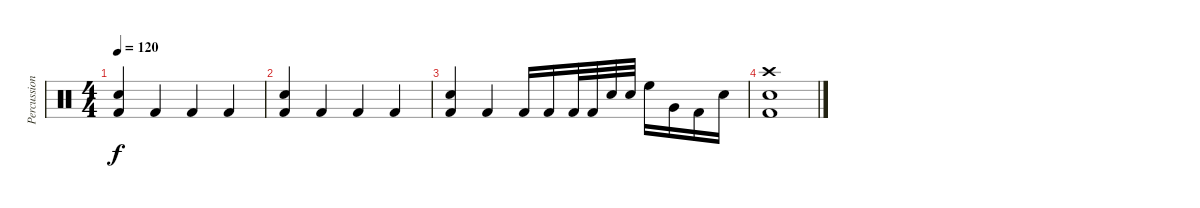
\track ("Percussions" "Percussion") {instrument percussion}
\staff {score}
\articulation defaults
\ts (4 4)
\tempo 120
\clef neutral
\ks c
("Snare (hit) 2" "Kick (hit) 2").4{dy f} "Kick (hit) 2".4 "Kick (hit) 2".4 "Kick (hit) 2".4 |
("Snare (hit) 2" "Kick (hit) 2").4 "Kick (hit) 2".4 "Kick (hit) 2".4 "Kick (hit) 2".4 |
("Snare (hit) 2" "Kick (hit) 2").4 "Kick (hit) 2".4 "Kick (hit) 2".16 "Kick (hit) 2".16 "Kick (hit) 2".32 "Kick (hit) 2".32 "Snare (hit) 2".32 "Snare (hit) 2".32 "High Floor Tom (hit)".16 "Very Low Tom (hit)".16 "Kick (hit) 2".16 "Snare (hit) 2".16 |
("Crash high (hit)" "Snare (hit) 2" "Kick (hit) 2").1
